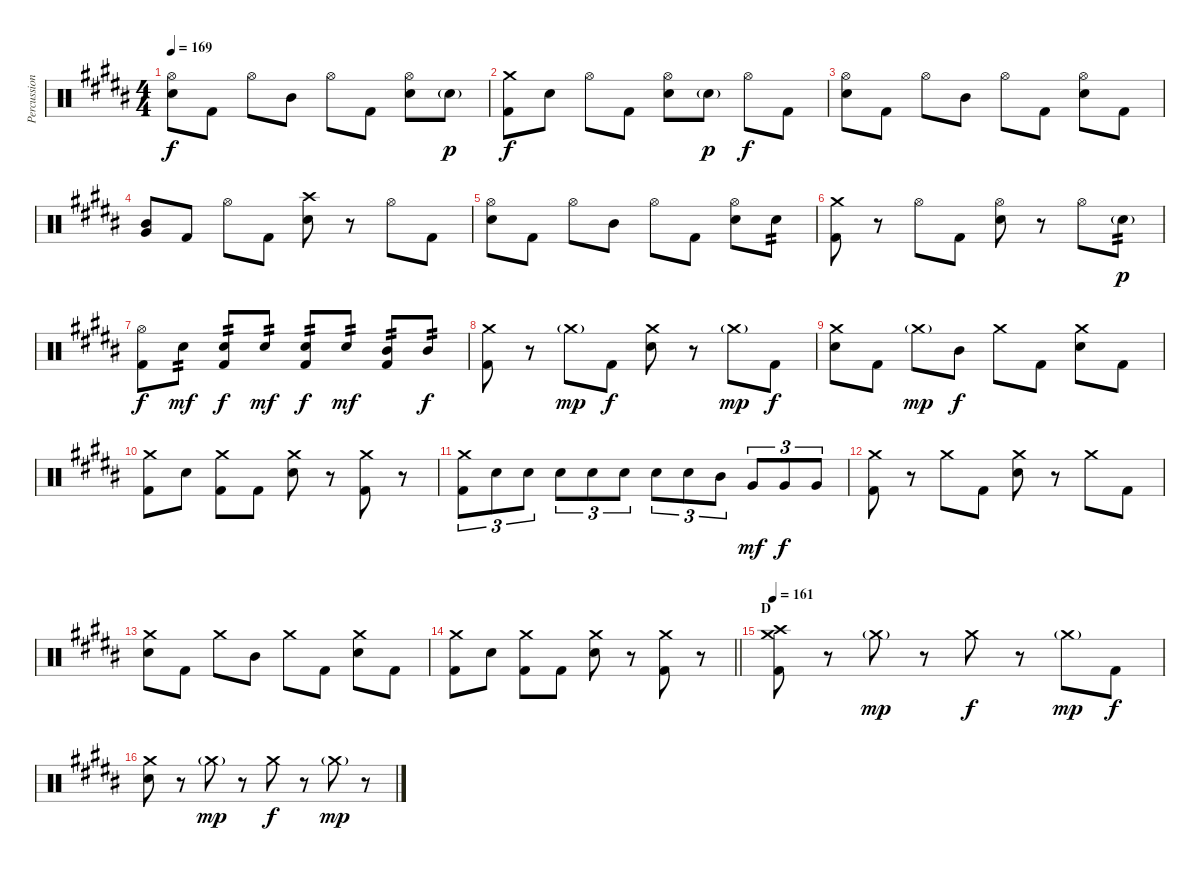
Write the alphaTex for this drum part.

\track ("Percussion" "Percussion") {instrument percussion}
\staff {score}
\articulation defaults
\ts (4 4)
\tempo 169
\clef neutral
\ks g#minor
("Hi-Hat (open)" "Snare (hit) 2").8{dy f} "Kick (hit) 2".8 "Hi-Hat (open)".8 "Mid Tom (hit)".8 "Hi-Hat (open)".8 "Kick (hit) 2".8 ("Hi-Hat (open)" "Snare (hit) 2").8 "Snare (hit) 2"{g}.8{dy p} |
("Crash medium (hit)" "Kick (hit) 2").8{dy f} "Snare (hit) 2".8 "Hi-Hat (open)".8 "Kick (hit) 2".8 ("Hi-Hat (open)" "Snare (hit) 2").8 "Snare (hit) 2"{g}.8{dy p} "Hi-Hat (open)".8{dy f} "Kick (hit) 2".8 |
("Hi-Hat (open)" "Snare (hit) 2").8 "Kick (hit) 2".8 "Hi-Hat (open)".8 "Mid Tom (hit)".8 "Hi-Hat (open)".8 "Kick (hit) 2".8 ("Hi-Hat (open)" "Snare (hit) 2").8 "Kick (hit) 2".8 |
("Mid Tom (hit)" "Very Low Tom (hit)").8{bu 60} "Kick (hit) 2".8 "Hi-Hat (open)".8 "Kick (hit) 2".8 ("Crash high (hit)" "Snare (hit) 2").8 r.8 "Hi-Hat (open)".8 "Kick (hit) 2".8 |
("Hi-Hat (open)" "Snare (hit) 2").8 "Kick (hit) 2".8 "Hi-Hat (open)".8 "Mid Tom (hit)".8 "Hi-Hat (open)".8 "Kick (hit) 2".8 ("Hi-Hat (open)" "Snare (hit) 2").8 "Snare (hit) 2".8{tp 2} |
("Crash medium (hit)" "Kick (hit) 2").8 r.8 "Hi-Hat (open)".8 "Kick (hit) 2".8 ("Hi-Hat (open)" "Snare (hit) 2").8 r.8 "Hi-Hat (open)".8 "Snare (hit) 2"{g}.8{tp 2 dy p} |
("Hi-Hat (open)" "Kick (hit) 2").8{dy f} "Snare (hit) 2".8{tp 2 dy mf} ("Snare (hit) 2" "Kick (hit) 2").8{tp 2 dy f} "Snare (hit) 2".8{tp 2 dy mf} ("Snare (hit) 2" "Kick (hit) 2").8{tp 2 dy f} "Snare (hit) 2".8{tp 2 dy mf} ("Mid Tom (hit)" "Kick (hit) 2").8{tp 2} "Mid Tom (hit)".8{tp 2 dy f} |
("Crash medium (hit)" "Kick (hit) 2").8 r.8 "Crash medium (hit)"{g}.8{dy mp} "Kick (hit) 2".8{dy f} ("Crash medium (hit)" "Snare (hit) 2").8 r.8 "Crash medium (hit)"{g}.8{dy mp} "Kick (hit) 2".8{dy f} |
("Crash medium (hit)" "Snare (hit) 2").8 "Kick (hit) 2".8 "Crash medium (hit)"{g}.8{dy mp} "Mid Tom (hit)".8{dy f} "Crash medium (hit)".8 "Kick (hit) 2".8 ("Crash medium (hit)" "Snare (hit) 2").8 "Kick (hit) 2".8 |
("Crash medium (hit)" "Kick (hit) 2").8 "Snare (hit) 2".8 ("Crash medium (hit)" "Kick (hit) 2").8 "Kick (hit) 2".8 ("Crash medium (hit)" "Snare (hit) 2").8 r.8 ("Crash medium (hit)" "Kick (hit) 2").8 r.8 |
("Crash medium (hit)" "Kick (hit) 2").8{tu (3 2)} "Snare (hit) 2".8{tu (3 2)} "Snare (hit) 2".8{tu (3 2)} "Snare (hit) 2".8{tu (3 2)} "Snare (hit) 2".8{tu (3 2)} "Snare (hit) 2".8{tu (3 2)} "Snare (hit) 2".8{tu (3 2)} "Snare (hit) 2".8{tu (3 2)} "Mid Tom (hit)".8{tu (3 2)} "Very Low Tom (hit)".8{tu (3 2) dy mf} "Very Low Tom (hit)".8{tu (3 2) dy f} "Very Low Tom (hit)".8{tu (3 2)} |
("Crash medium (hit)" "Kick (hit) 2").8 r.8 "Crash medium (hit)".8 "Kick (hit) 2".8 ("Crash medium (hit)" "Snare (hit) 2").8 r.8 "Crash medium (hit)".8 "Kick (hit) 2".8 |
("Crash medium (hit)" "Snare (hit) 2").8 "Kick (hit) 2".8 "Crash medium (hit)".8 "Mid Tom (hit)".8 "Crash medium (hit)".8 "Kick (hit) 2".8 ("Crash medium (hit)" "Snare (hit) 2").8 "Kick (hit) 2".8 |
\barLineRight lightlight
("Crash medium (hit)" "Kick (hit) 2").8 "Snare (hit) 2".8 ("Crash medium (hit)" "Kick (hit) 2").8 "Kick (hit) 2".8 ("Crash medium (hit)" "Snare (hit) 2").8 r.8 ("Crash medium (hit)" "Kick (hit) 2").8 r.8 |
\section ("" "D")
\tempo 161
("Crash medium (hit)" "Crash high (hit)" "Kick (hit) 2").8 r.8 "Crash medium (hit)"{g}.8{dy mp} r.8 "Crash medium (hit)".8{dy f} r.8 "Crash medium (hit)"{g}.8{dy mp} "Kick (hit) 2".8{dy f} |
("Crash medium (hit)" "Snare (hit) 2").8 r.8 "Crash medium (hit)"{g}.8{dy mp} r.8 "Crash medium (hit)".8{dy f} r.8 "Crash medium (hit)"{g}.8{dy mp} r.8
